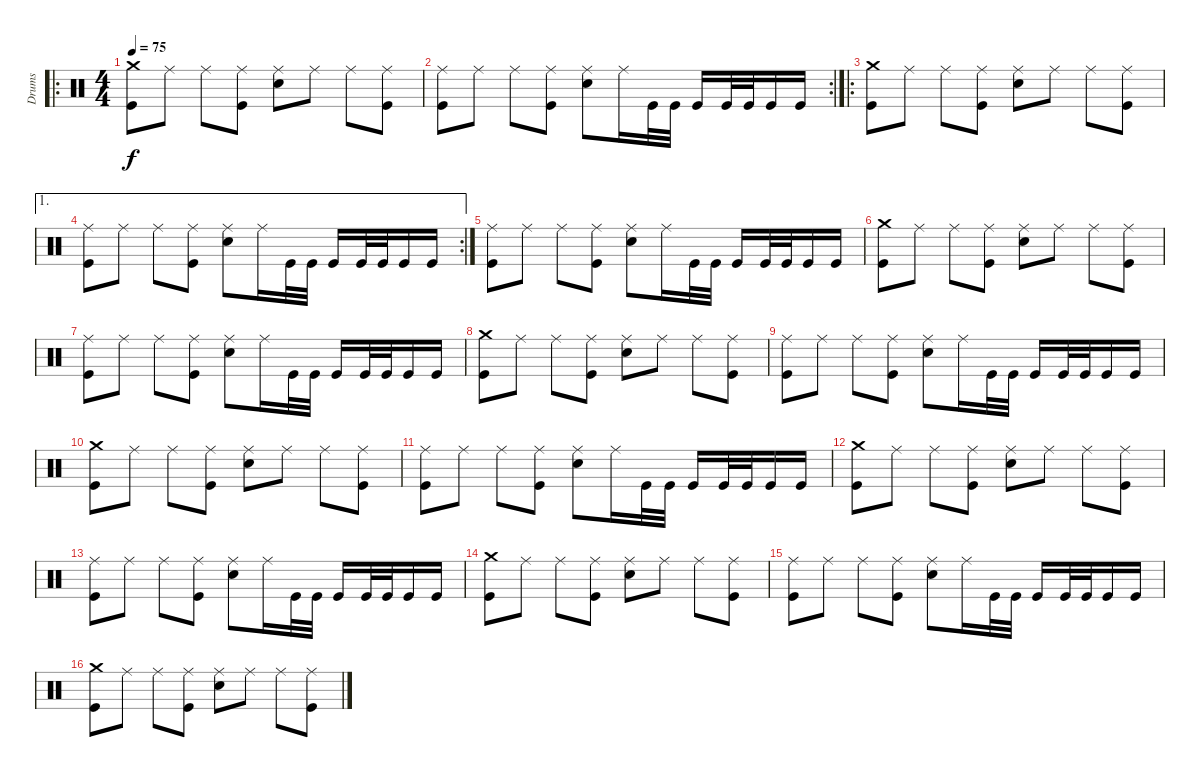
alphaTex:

\track ("Drums" "Drums") {instrument percussion}
\staff {score}
\articulation defaults
\ro
\ts (4 4)
\tempo 75
\clef neutral
\ks c
("Crash medium (hit)" "Kick (hit)").8{dy f} "Ride (middle)".8 "Ride (middle)".8 ("Ride (middle)" "Kick (hit)").8 ("Snare (hit) 2" "Ride (middle)").8 "Ride (middle)".8 "Ride (middle)".8 ("Ride (middle)" "Kick (hit)").8 |
\rc 2
("Ride (middle)" "Kick (hit)").8 "Ride (middle)".8 "Ride (middle)".8 ("Ride (middle)" "Kick (hit)").8 ("Snare (hit) 2" "Ride (middle)").8 "Ride (middle)".16 "Kick (hit)".32 "Kick (hit)".32 "Kick (hit)".16 "Kick (hit)".32 "Kick (hit)".32 "Kick (hit)".16 "Kick (hit)".16 |
\ro
("Crash medium (hit)" "Kick (hit)").8 "Ride (middle)".8 "Ride (middle)".8 ("Ride (middle)" "Kick (hit)").8 ("Snare (hit) 2" "Ride (middle)").8 "Ride (middle)".8 "Ride (middle)".8 ("Ride (middle)" "Kick (hit)").8 |
\ae 1
\rc 2
("Ride (middle)" "Kick (hit)").8 "Ride (middle)".8 "Ride (middle)".8 ("Ride (middle)" "Kick (hit)").8 ("Snare (hit) 2" "Ride (middle)").8 "Ride (middle)".16 "Kick (hit)".32 "Kick (hit)".32 "Kick (hit)".16 "Kick (hit)".32 "Kick (hit)".32 "Kick (hit)".16 "Kick (hit)".16 |
("Ride (middle)" "Kick (hit)").8 "Ride (middle)".8 "Ride (middle)".8 ("Ride (middle)" "Kick (hit)").8 ("Snare (hit) 2" "Ride (middle)").8 "Ride (middle)".16 "Kick (hit)".32 "Kick (hit)".32 "Kick (hit)".16 "Kick (hit)".32 "Kick (hit)".32 "Kick (hit)".16 "Kick (hit)".16 |
("Crash medium (hit)" "Kick (hit)").8 "Ride (middle)".8 "Ride (middle)".8 ("Ride (middle)" "Kick (hit)").8 ("Snare (hit) 2" "Ride (middle)").8 "Ride (middle)".8 "Ride (middle)".8 ("Ride (middle)" "Kick (hit)").8 |
("Ride (middle)" "Kick (hit)").8 "Ride (middle)".8 "Ride (middle)".8 ("Ride (middle)" "Kick (hit)").8 ("Snare (hit) 2" "Ride (middle)").8 "Ride (middle)".16 "Kick (hit)".32 "Kick (hit)".32 "Kick (hit)".16 "Kick (hit)".32 "Kick (hit)".32 "Kick (hit)".16 "Kick (hit)".16 |
("Crash medium (hit)" "Kick (hit)").8 "Ride (middle)".8 "Ride (middle)".8 ("Ride (middle)" "Kick (hit)").8 ("Snare (hit) 2" "Ride (middle)").8 "Ride (middle)".8 "Ride (middle)".8 ("Ride (middle)" "Kick (hit)").8 |
("Ride (middle)" "Kick (hit)").8 "Ride (middle)".8 "Ride (middle)".8 ("Ride (middle)" "Kick (hit)").8 ("Snare (hit) 2" "Ride (middle)").8 "Ride (middle)".16 "Kick (hit)".32 "Kick (hit)".32 "Kick (hit)".16 "Kick (hit)".32 "Kick (hit)".32 "Kick (hit)".16 "Kick (hit)".16 |
("Crash medium (hit)" "Kick (hit)").8 "Ride (middle)".8 "Ride (middle)".8 ("Ride (middle)" "Kick (hit)").8 ("Snare (hit) 2" "Ride (middle)").8 "Ride (middle)".8 "Ride (middle)".8 ("Ride (middle)" "Kick (hit)").8 |
("Ride (middle)" "Kick (hit)").8 "Ride (middle)".8 "Ride (middle)".8 ("Ride (middle)" "Kick (hit)").8 ("Snare (hit) 2" "Ride (middle)").8 "Ride (middle)".16 "Kick (hit)".32 "Kick (hit)".32 "Kick (hit)".16 "Kick (hit)".32 "Kick (hit)".32 "Kick (hit)".16 "Kick (hit)".16 |
("Crash medium (hit)" "Kick (hit)").8 "Ride (middle)".8 "Ride (middle)".8 ("Ride (middle)" "Kick (hit)").8 ("Snare (hit) 2" "Ride (middle)").8 "Ride (middle)".8 "Ride (middle)".8 ("Ride (middle)" "Kick (hit)").8 |
("Ride (middle)" "Kick (hit)").8 "Ride (middle)".8 "Ride (middle)".8 ("Ride (middle)" "Kick (hit)").8 ("Snare (hit) 2" "Ride (middle)").8 "Ride (middle)".16 "Kick (hit)".32 "Kick (hit)".32 "Kick (hit)".16 "Kick (hit)".32 "Kick (hit)".32 "Kick (hit)".16 "Kick (hit)".16 |
("Crash medium (hit)" "Kick (hit)").8 "Ride (middle)".8 "Ride (middle)".8 ("Ride (middle)" "Kick (hit)").8 ("Snare (hit) 2" "Ride (middle)").8 "Ride (middle)".8 "Ride (middle)".8 ("Ride (middle)" "Kick (hit)").8 |
("Ride (middle)" "Kick (hit)").8 "Ride (middle)".8 "Ride (middle)".8 ("Ride (middle)" "Kick (hit)").8 ("Snare (hit) 2" "Ride (middle)").8 "Ride (middle)".16 "Kick (hit)".32 "Kick (hit)".32 "Kick (hit)".16 "Kick (hit)".32 "Kick (hit)".32 "Kick (hit)".16 "Kick (hit)".16 |
("Crash medium (hit)" "Kick (hit)").8 "Ride (middle)".8 "Ride (middle)".8 ("Ride (middle)" "Kick (hit)").8 ("Snare (hit) 2" "Ride (middle)").8 "Ride (middle)".8 "Ride (middle)".8 ("Ride (middle)" "Kick (hit)").8
